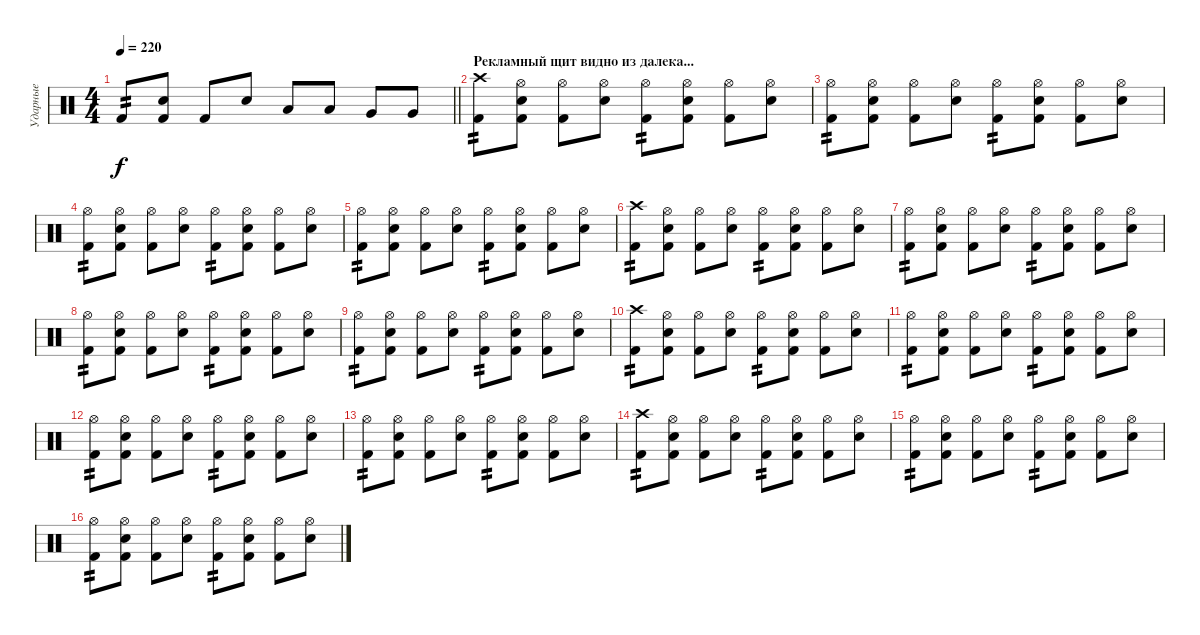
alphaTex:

\track ("Ударные" "Ударные") {instrument percussion}
\staff {score}
\articulation defaults
\ts (4 4)
\tempo 220
\clef neutral
\barLineRight lightlight
\ks c "Kick (hit) 2".8{tp 2 dy f}
("Electric Snare (hit)" "Kick (hit) 2").8 "Kick (hit) 2".8 "Electric Snare (hit)".8 "Low Tom (hit)".8 "Low Tom (hit)".8 "Very Low Tom (hit)".8 "Very Low Tom (hit)".8 |
\section ("" "Рекламный щит видно из далека...")
("Crash high (hit)" "Kick (hit) 2").8{tp 2} ("Hi-Hat (open)" "Electric Snare (hit)" "Kick (hit) 2").8 ("Hi-Hat (open)" "Kick (hit) 2").8 ("Hi-Hat (open)" "Electric Snare (hit)").8 ("Hi-Hat (open)" "Kick (hit) 2").8{tp 2} ("Hi-Hat (open)" "Electric Snare (hit)" "Kick (hit) 2").8 ("Hi-Hat (open)" "Kick (hit) 2").8 ("Hi-Hat (open)" "Electric Snare (hit)").8 |
("Hi-Hat (open)" "Kick (hit) 2").8{tp 2} ("Hi-Hat (open)" "Electric Snare (hit)" "Kick (hit) 2").8 ("Hi-Hat (open)" "Kick (hit) 2").8 ("Hi-Hat (open)" "Electric Snare (hit)").8 ("Hi-Hat (open)" "Kick (hit) 2").8{tp 2} ("Hi-Hat (open)" "Electric Snare (hit)" "Kick (hit) 2").8 ("Hi-Hat (open)" "Kick (hit) 2").8 ("Hi-Hat (open)" "Electric Snare (hit)").8 |
("Hi-Hat (open)" "Kick (hit) 2").8{tp 2} ("Hi-Hat (open)" "Electric Snare (hit)" "Kick (hit) 2").8 ("Hi-Hat (open)" "Kick (hit) 2").8 ("Hi-Hat (open)" "Electric Snare (hit)").8 ("Hi-Hat (open)" "Kick (hit) 2").8{tp 2} ("Hi-Hat (open)" "Electric Snare (hit)" "Kick (hit) 2").8 ("Hi-Hat (open)" "Kick (hit) 2").8 ("Hi-Hat (open)" "Electric Snare (hit)").8 |
("Hi-Hat (open)" "Kick (hit) 2").8{tp 2} ("Hi-Hat (open)" "Electric Snare (hit)" "Kick (hit) 2").8 ("Hi-Hat (open)" "Kick (hit) 2").8 ("Hi-Hat (open)" "Electric Snare (hit)").8 ("Hi-Hat (open)" "Kick (hit) 2").8{tp 2} ("Hi-Hat (open)" "Electric Snare (hit)" "Kick (hit) 2").8 ("Hi-Hat (open)" "Kick (hit) 2").8 ("Hi-Hat (open)" "Electric Snare (hit)").8 |
("Crash high (hit)" "Kick (hit) 2").8{tp 2} ("Hi-Hat (open)" "Electric Snare (hit)" "Kick (hit) 2").8 ("Hi-Hat (open)" "Kick (hit) 2").8 ("Hi-Hat (open)" "Electric Snare (hit)").8 ("Hi-Hat (open)" "Kick (hit) 2").8{tp 2} ("Hi-Hat (open)" "Electric Snare (hit)" "Kick (hit) 2").8 ("Hi-Hat (open)" "Kick (hit) 2").8 ("Hi-Hat (open)" "Electric Snare (hit)").8 |
("Hi-Hat (open)" "Kick (hit) 2").8{tp 2} ("Hi-Hat (open)" "Electric Snare (hit)" "Kick (hit) 2").8 ("Hi-Hat (open)" "Kick (hit) 2").8 ("Hi-Hat (open)" "Electric Snare (hit)").8 ("Hi-Hat (open)" "Kick (hit) 2").8{tp 2} ("Hi-Hat (open)" "Electric Snare (hit)" "Kick (hit) 2").8 ("Hi-Hat (open)" "Kick (hit) 2").8 ("Hi-Hat (open)" "Electric Snare (hit)").8 |
("Hi-Hat (open)" "Kick (hit) 2").8{tp 2} ("Hi-Hat (open)" "Electric Snare (hit)" "Kick (hit) 2").8 ("Hi-Hat (open)" "Kick (hit) 2").8 ("Hi-Hat (open)" "Electric Snare (hit)").8 ("Hi-Hat (open)" "Kick (hit) 2").8{tp 2} ("Hi-Hat (open)" "Electric Snare (hit)" "Kick (hit) 2").8 ("Hi-Hat (open)" "Kick (hit) 2").8 ("Hi-Hat (open)" "Electric Snare (hit)").8 |
("Hi-Hat (open)" "Kick (hit) 2").8{tp 2} ("Hi-Hat (open)" "Electric Snare (hit)" "Kick (hit) 2").8 ("Hi-Hat (open)" "Kick (hit) 2").8 ("Hi-Hat (open)" "Electric Snare (hit)").8 ("Hi-Hat (open)" "Kick (hit) 2").8{tp 2} ("Hi-Hat (open)" "Electric Snare (hit)" "Kick (hit) 2").8 ("Hi-Hat (open)" "Kick (hit) 2").8 ("Hi-Hat (open)" "Electric Snare (hit)").8 |
("Crash high (hit)" "Kick (hit) 2").8{tp 2} ("Hi-Hat (open)" "Electric Snare (hit)" "Kick (hit) 2").8 ("Hi-Hat (open)" "Kick (hit) 2").8 ("Hi-Hat (open)" "Electric Snare (hit)").8 ("Hi-Hat (open)" "Kick (hit) 2").8{tp 2} ("Hi-Hat (open)" "Electric Snare (hit)" "Kick (hit) 2").8 ("Hi-Hat (open)" "Kick (hit) 2").8 ("Hi-Hat (open)" "Electric Snare (hit)").8 |
("Hi-Hat (open)" "Kick (hit) 2").8{tp 2} ("Hi-Hat (open)" "Electric Snare (hit)" "Kick (hit) 2").8 ("Hi-Hat (open)" "Kick (hit) 2").8 ("Hi-Hat (open)" "Electric Snare (hit)").8 ("Hi-Hat (open)" "Kick (hit) 2").8{tp 2} ("Hi-Hat (open)" "Electric Snare (hit)" "Kick (hit) 2").8 ("Hi-Hat (open)" "Kick (hit) 2").8 ("Hi-Hat (open)" "Electric Snare (hit)").8 |
("Hi-Hat (open)" "Kick (hit) 2").8{tp 2} ("Hi-Hat (open)" "Electric Snare (hit)" "Kick (hit) 2").8 ("Hi-Hat (open)" "Kick (hit) 2").8 ("Hi-Hat (open)" "Electric Snare (hit)").8 ("Hi-Hat (open)" "Kick (hit) 2").8{tp 2} ("Hi-Hat (open)" "Electric Snare (hit)" "Kick (hit) 2").8 ("Hi-Hat (open)" "Kick (hit) 2").8 ("Hi-Hat (open)" "Electric Snare (hit)").8 |
("Hi-Hat (open)" "Kick (hit) 2").8{tp 2} ("Hi-Hat (open)" "Electric Snare (hit)" "Kick (hit) 2").8 ("Hi-Hat (open)" "Kick (hit) 2").8 ("Hi-Hat (open)" "Electric Snare (hit)").8 ("Hi-Hat (open)" "Kick (hit) 2").8{tp 2} ("Hi-Hat (open)" "Electric Snare (hit)" "Kick (hit) 2").8 ("Hi-Hat (open)" "Kick (hit) 2").8 ("Hi-Hat (open)" "Electric Snare (hit)").8 |
("Crash high (hit)" "Kick (hit) 2").8{tp 2} ("Hi-Hat (open)" "Electric Snare (hit)" "Kick (hit) 2").8 ("Hi-Hat (open)" "Kick (hit) 2").8 ("Hi-Hat (open)" "Electric Snare (hit)").8 ("Hi-Hat (open)" "Kick (hit) 2").8{tp 2} ("Hi-Hat (open)" "Electric Snare (hit)" "Kick (hit) 2").8 ("Hi-Hat (open)" "Kick (hit) 2").8 ("Hi-Hat (open)" "Electric Snare (hit)").8 |
("Hi-Hat (open)" "Kick (hit) 2").8{tp 2} ("Hi-Hat (open)" "Electric Snare (hit)" "Kick (hit) 2").8 ("Hi-Hat (open)" "Kick (hit) 2").8 ("Hi-Hat (open)" "Electric Snare (hit)").8 ("Hi-Hat (open)" "Kick (hit) 2").8{tp 2} ("Hi-Hat (open)" "Electric Snare (hit)" "Kick (hit) 2").8 ("Hi-Hat (open)" "Kick (hit) 2").8 ("Hi-Hat (open)" "Electric Snare (hit)").8 |
("Hi-Hat (open)" "Kick (hit) 2").8{tp 2} ("Hi-Hat (open)" "Electric Snare (hit)" "Kick (hit) 2").8 ("Hi-Hat (open)" "Kick (hit) 2").8 ("Hi-Hat (open)" "Electric Snare (hit)").8 ("Hi-Hat (open)" "Kick (hit) 2").8{tp 2} ("Hi-Hat (open)" "Electric Snare (hit)" "Kick (hit) 2").8 ("Hi-Hat (open)" "Kick (hit) 2").8 ("Hi-Hat (open)" "Electric Snare (hit)").8
